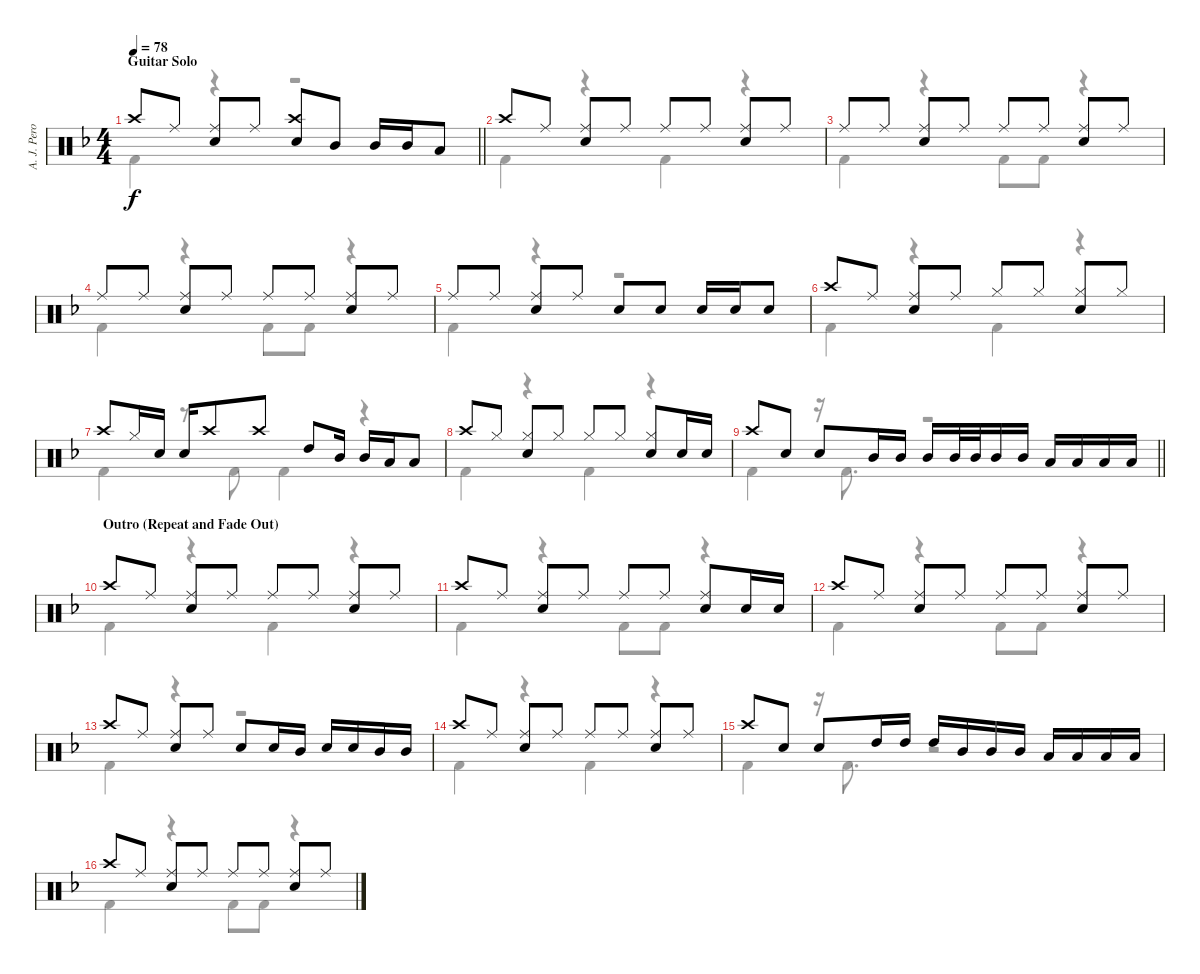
\track ("A. J. Pero" "A. J. Pero") {instrument percussion}
\staff {score}
\articulation defaults
\voice
\ts (4 4)
\section ("" "Guitar Solo")
\tempo 78
\clef neutral
\barLineRight lightlight
\ks dminor "Crash high (hit)".8{dy f} "Ride (middle)".8
("Ride (middle)" "Snare (hit) 2").8 "Ride (middle)".8 ("Crash high (hit)" "Snare (hit) 2").8 "Mid Tom (hit)".8 "Mid Tom (hit)".16 "Mid Tom (hit)".16 "Low Tom (hit)".8 |
"Crash high (hit)".8 "Ride (middle)".8 ("Ride (middle)" "Snare (hit) 2").8 "Ride (middle)".8 "Ride (middle)".8 "Ride (middle)".8 ("Ride (middle)" "Snare (hit) 2").8 "Ride (middle)".8 |
"Ride (middle)".8 "Ride (middle)".8 ("Ride (middle)" "Snare (hit) 2").8 "Ride (middle)".8 "Ride (middle)".8 "Ride (middle)".8 ("Ride (middle)" "Snare (hit) 2").8 "Ride (middle)".8 |
"Ride (middle)".8 "Ride (middle)".8 ("Ride (middle)" "Snare (hit) 2").8 "Ride (middle)".8 "Ride (middle)".8 "Ride (middle)".8 ("Ride (middle)" "Snare (hit) 2").8 "Ride (middle)".8 |
"Ride (middle)".8 "Ride (middle)".8 ("Ride (middle)" "Snare (hit) 2").8 "Ride (middle)".8 "Snare (hit) 2".8 "Snare (hit) 2".8 "Snare (hit) 2".16 "Snare (hit) 2".16 "Snare (hit) 2".8 |
"Crash high (hit)".8 "Ride (middle)".8 ("Ride (middle)" "Snare (hit) 2").8 "Ride (middle)".8 "Hi-Hat (closed)".8 "Hi-Hat (closed)".8 ("Hi-Hat (closed)" "Snare (hit) 2").8 "Hi-Hat (closed)".8 |
"Crash high (hit)".8 "Hi-Hat (closed)".16 "Snare (hit) 2".16 "Snare (hit) 2".16 "Crash high (hit)".8 "Crash high (hit)".8 "High Tom (hit)".8 "Mid Tom (hit)".16 "Mid Tom (hit)".16 "Low Tom (hit)".16 "Low Tom (hit)".8 |
"Crash high (hit)".8 "Hi-Hat (closed)".8 ("Hi-Hat (closed)" "Snare (hit) 2").8 "Hi-Hat (closed)".8 "Hi-Hat (closed)".8 "Hi-Hat (closed)".8 ("Hi-Hat (closed)" "Snare (hit) 2").8 "Snare (hit) 2".16 "Snare (hit) 2".16 |
\barLineRight lightlight "Crash high (hit)".8 "Snare (hit) 2".8 "Snare (hit) 2".8 "Mid Tom (hit)".16 "Mid Tom (hit)".16 "Mid Tom (hit)".16 "Mid Tom (hit)".32 "Mid Tom (hit)".32 "Mid Tom (hit)".16 "Mid Tom (hit)".16 "Low Tom (hit)".16 "Low Tom (hit)".16 "Low Tom (hit)".16 "Low Tom (hit)".16
|
\section ("" "Outro (Repeat and Fade Out)")
"Crash high (hit)".8 "Ride (middle)".8 ("Ride (middle)" "Snare (hit) 2").8 "Ride (middle)".8 "Ride (middle)".8 "Ride (middle)".8 ("Ride (middle)" "Snare (hit) 2").8 "Ride (middle)".8 |
"Crash high (hit)".8 "Ride (middle)".8 ("Ride (middle)" "Snare (hit) 2").8 "Ride (middle)".8 "Ride (middle)".8 "Ride (middle)".8 ("Ride (middle)" "Snare (hit) 2").8 "Snare (hit) 2".16 "Snare (hit) 2".16 |
"Crash high (hit)".8 "Ride (middle)".8 ("Ride (middle)" "Snare (hit) 2").8 "Ride (middle)".8 "Ride (middle)".8 "Ride (middle)".8 ("Ride (middle)" "Snare (hit) 2").8 "Ride (middle)".8 |
"Crash high (hit)".8 "Ride (middle)".8 ("Ride (middle)" "Snare (hit) 2").8 "Ride (middle)".8 "Snare (hit) 2".8 "Snare (hit) 2".16 "Mid Tom (hit)".16 "Snare (hit) 2".16 "Snare (hit) 2".16 "Mid Tom (hit)".16 "Mid Tom (hit)".16 |
"Crash high (hit)".8 "Ride (middle)".8 ("Ride (middle)" "Snare (hit) 2").8 "Ride (middle)".8 "Ride (middle)".8 "Ride (middle)".8 ("Ride (middle)" "Snare (hit) 2").8 "Ride (middle)".8 |
"Crash high (hit)".8 "Snare (hit) 2".8 "Snare (hit) 2".8 "High Tom (hit)".16 "High Tom (hit)".16 "High Tom (hit)".16 "Mid Tom (hit)".16 "Mid Tom (hit)".16 "Mid Tom (hit)".16 "Low Tom (hit)".16 "Low Tom (hit)".16 "Low Tom (hit)".16 "Low Tom (hit)".16 |
"Crash high (hit)".8 "Ride (middle)".8 ("Ride (middle)" "Snare (hit) 2").8 "Ride (middle)".8 "Ride (middle)".8 "Ride (middle)".8 ("Ride (middle)" "Snare (hit) 2").8 "Ride (middle)".8
\voice
\clef neutral
\ottava regular
\simile none
\barLineRight lightlight
\ks dminor "Kick (hit) 2".4{dy f}
r.4 r.2 |
"Kick (hit) 2".4 r.4 "Kick (hit) 2".4 r.4 |
"Kick (hit) 2".4 r.4 "Kick (hit) 2".8 "Kick (hit) 2".8 r.4 |
"Kick (hit) 2".4 r.4 "Kick (hit) 2".8 "Kick (hit) 2".8 r.4 |
"Kick (hit) 2".4 r.4 r.2 |
"Kick (hit) 2".4 r.4 "Kick (hit) 2".4 r.4 |
"Kick (hit) 2".4 r.8 "Kick (hit) 2".8 "Kick (hit) 2".4 r.4 |
"Kick (hit) 2".4 r.4 "Kick (hit) 2".4 r.4 |
\barLineRight lightlight "Kick (hit) 2".4
r.16 "Kick (hit) 2".8{d} r.2 |
"Kick (hit) 2".4 r.4 "Kick (hit) 2".4 r.4 |
"Kick (hit) 2".4 r.4 "Kick (hit) 2".8 "Kick (hit) 2".8 r.4 |
"Kick (hit) 2".4 r.4 "Kick (hit) 2".8 "Kick (hit) 2".8 r.4 |
"Kick (hit) 2".4 r.4 r.2 |
"Kick (hit) 2".4 r.4 "Kick (hit) 2".4 r.4 |
"Kick (hit) 2".4 r.16 "Kick (hit) 2".8{d} r.2 |
"Kick (hit) 2".4 r.4 "Kick (hit) 2".8 "Kick (hit) 2".8 r.4
